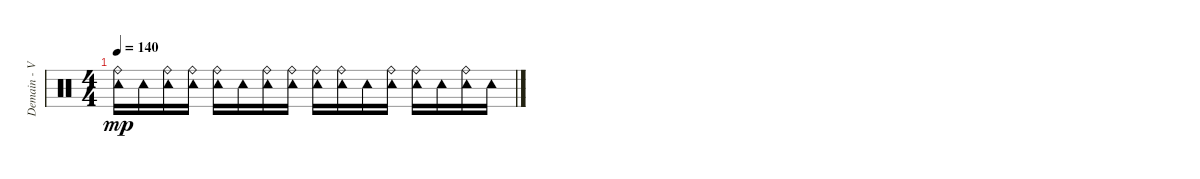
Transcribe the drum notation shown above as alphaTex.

\track ("Demain - Various Perc." "Demain - V") {instrument percussion}
\staff {score}
\articulation defaults
\ts (4 4)
\tempo 140
\clef neutral
\ks c
("Tambourine (hit)" "Ride (bell)").16{dy mp} "Tambourine (hit)".16 ("Tambourine (hit)" "Ride (bell)").16 ("Tambourine (hit)" "Ride (bell)").16 ("Tambourine (hit)" "Ride (bell)").16 "Tambourine (hit)".16 ("Tambourine (hit)" "Ride (bell)").16 ("Tambourine (hit)" "Ride (bell)").16 ("Tambourine (hit)" "Ride (bell)").16 ("Tambourine (hit)" "Ride (bell)").16 "Tambourine (hit)".16 ("Tambourine (hit)" "Ride (bell)").16 ("Tambourine (hit)" "Ride (bell)").16 "Tambourine (hit)".16 ("Tambourine (hit)" "Ride (bell)").16 "Tambourine (hit)".16
